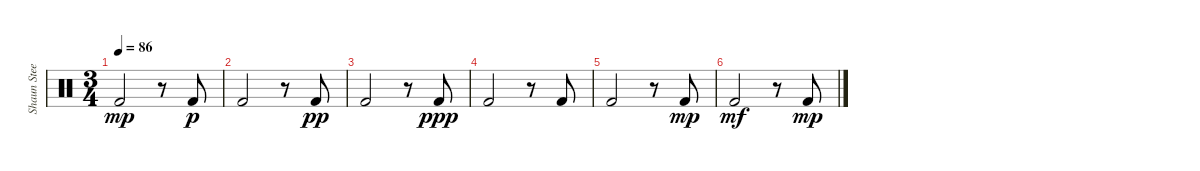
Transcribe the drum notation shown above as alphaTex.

\track ("Shaun Steels (Drums)" "Shaun Stee") {instrument percussion}
\staff {score}
\articulation defaults
\ts (3 4)
\tempo 86
\clef neutral
\ks c "Kick (hit) 2".2{dy mp}
r.8 "Kick (hit) 2".8{dy p} |
"Kick (hit) 2".2 r.8 "Kick (hit) 2".8{dy pp} |
"Kick (hit) 2".2 r.8 "Kick (hit) 2".8{dy ppp} |
"Kick (hit) 2".2 r.8 "Kick (hit) 2".8{volume 0} |
"Kick (hit) 2".2 r.8 "Kick (hit) 2".8{dy mp} |
"Kick (hit) 2".2{dy mf} r.8 "Kick (hit) 2".8{dy mp}
